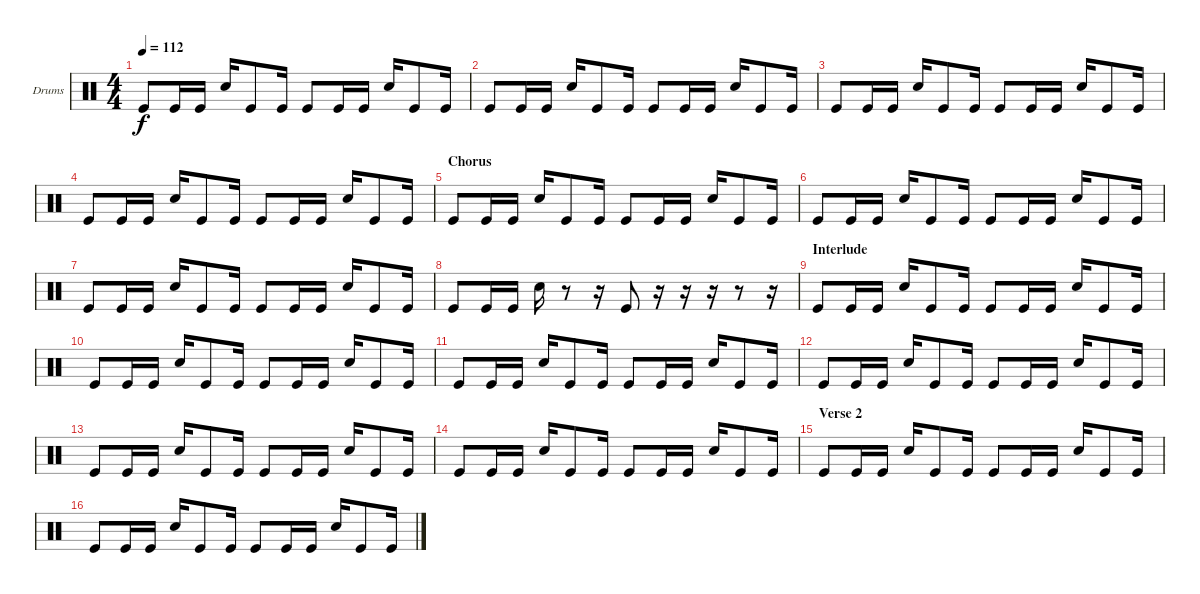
\bracketExtendMode groupsimilarinstruments
\firstSystemTrackNameOrientation horizontal
\otherSystemsTrackNameOrientation horizontal
\track ("Drumkit" "Drums") {instrument percussion}
\staff {score}
\articulation defaults
\ts (4 4)
\tempo 112
\clef neutral
\ks c "Kick (hit)".8{dy f} "Kick (hit)".16 "Kick (hit)".16 "Snare (hit) 2".16 "Kick (hit)".8 "Kick (hit)".16 "Kick (hit)".8 "Kick (hit)".16 "Kick (hit)".16 "Snare (hit) 2".16 "Kick (hit)".8 "Kick (hit)".16
|
"Kick (hit)".8 "Kick (hit)".16 "Kick (hit)".16 "Snare (hit) 2".16 "Kick (hit)".8 "Kick (hit)".16 "Kick (hit)".8 "Kick (hit)".16 "Kick (hit)".16 "Snare (hit) 2".16 "Kick (hit)".8 "Kick (hit)".16 |
"Kick (hit)".8 "Kick (hit)".16 "Kick (hit)".16 "Snare (hit) 2".16 "Kick (hit)".8 "Kick (hit)".16 "Kick (hit)".8 "Kick (hit)".16 "Kick (hit)".16 "Snare (hit) 2".16 "Kick (hit)".8 "Kick (hit)".16 |
"Kick (hit)".8 "Kick (hit)".16 "Kick (hit)".16 "Snare (hit) 2".16 "Kick (hit)".8 "Kick (hit)".16 "Kick (hit)".8 "Kick (hit)".16 "Kick (hit)".16 "Snare (hit) 2".16 "Kick (hit)".8 "Kick (hit)".16 |
\section ("" "Chorus")
"Kick (hit)".8 "Kick (hit)".16 "Kick (hit)".16 "Snare (hit) 2".16 "Kick (hit)".8 "Kick (hit)".16 "Kick (hit)".8 "Kick (hit)".16 "Kick (hit)".16 "Snare (hit) 2".16 "Kick (hit)".8 "Kick (hit)".16 |
"Kick (hit)".8 "Kick (hit)".16 "Kick (hit)".16 "Snare (hit) 2".16 "Kick (hit)".8 "Kick (hit)".16 "Kick (hit)".8 "Kick (hit)".16 "Kick (hit)".16 "Snare (hit) 2".16 "Kick (hit)".8 "Kick (hit)".16 |
"Kick (hit)".8 "Kick (hit)".16 "Kick (hit)".16 "Snare (hit) 2".16 "Kick (hit)".8 "Kick (hit)".16 "Kick (hit)".8 "Kick (hit)".16 "Kick (hit)".16 "Snare (hit) 2".16 "Kick (hit)".8 "Kick (hit)".16 |
"Kick (hit)".8 "Kick (hit)".16 "Kick (hit)".16 "Snare (hit) 2".16 r.8 r.16 "Kick (hit)".8 r.16 r.16 r.16 r.8 r.16 |
\section ("" "Interlude")
"Kick (hit)".8 "Kick (hit)".16 "Kick (hit)".16 "Snare (hit) 2".16 "Kick (hit)".8 "Kick (hit)".16 "Kick (hit)".8 "Kick (hit)".16 "Kick (hit)".16 "Snare (hit) 2".16 "Kick (hit)".8 "Kick (hit)".16 |
"Kick (hit)".8 "Kick (hit)".16 "Kick (hit)".16 "Snare (hit) 2".16 "Kick (hit)".8 "Kick (hit)".16 "Kick (hit)".8 "Kick (hit)".16 "Kick (hit)".16 "Snare (hit) 2".16 "Kick (hit)".8 "Kick (hit)".16 |
"Kick (hit)".8 "Kick (hit)".16 "Kick (hit)".16 "Snare (hit) 2".16 "Kick (hit)".8 "Kick (hit)".16 "Kick (hit)".8 "Kick (hit)".16 "Kick (hit)".16 "Snare (hit) 2".16 "Kick (hit)".8 "Kick (hit)".16 |
"Kick (hit)".8 "Kick (hit)".16 "Kick (hit)".16 "Snare (hit) 2".16 "Kick (hit)".8 "Kick (hit)".16 "Kick (hit)".8 "Kick (hit)".16 "Kick (hit)".16 "Snare (hit) 2".16 "Kick (hit)".8 "Kick (hit)".16 |
"Kick (hit)".8 "Kick (hit)".16 "Kick (hit)".16 "Snare (hit) 2".16 "Kick (hit)".8 "Kick (hit)".16 "Kick (hit)".8 "Kick (hit)".16 "Kick (hit)".16 "Snare (hit) 2".16 "Kick (hit)".8 "Kick (hit)".16 |
"Kick (hit)".8 "Kick (hit)".16 "Kick (hit)".16 "Snare (hit) 2".16 "Kick (hit)".8 "Kick (hit)".16 "Kick (hit)".8 "Kick (hit)".16 "Kick (hit)".16 "Snare (hit) 2".16 "Kick (hit)".8 "Kick (hit)".16 |
\section ("" "Verse 2")
"Kick (hit)".8 "Kick (hit)".16 "Kick (hit)".16 "Snare (hit) 2".16 "Kick (hit)".8 "Kick (hit)".16 "Kick (hit)".8 "Kick (hit)".16 "Kick (hit)".16 "Snare (hit) 2".16 "Kick (hit)".8 "Kick (hit)".16 |
"Kick (hit)".8 "Kick (hit)".16 "Kick (hit)".16 "Snare (hit) 2".16 "Kick (hit)".8 "Kick (hit)".16 "Kick (hit)".8 "Kick (hit)".16 "Kick (hit)".16 "Snare (hit) 2".16 "Kick (hit)".8 "Kick (hit)".16
